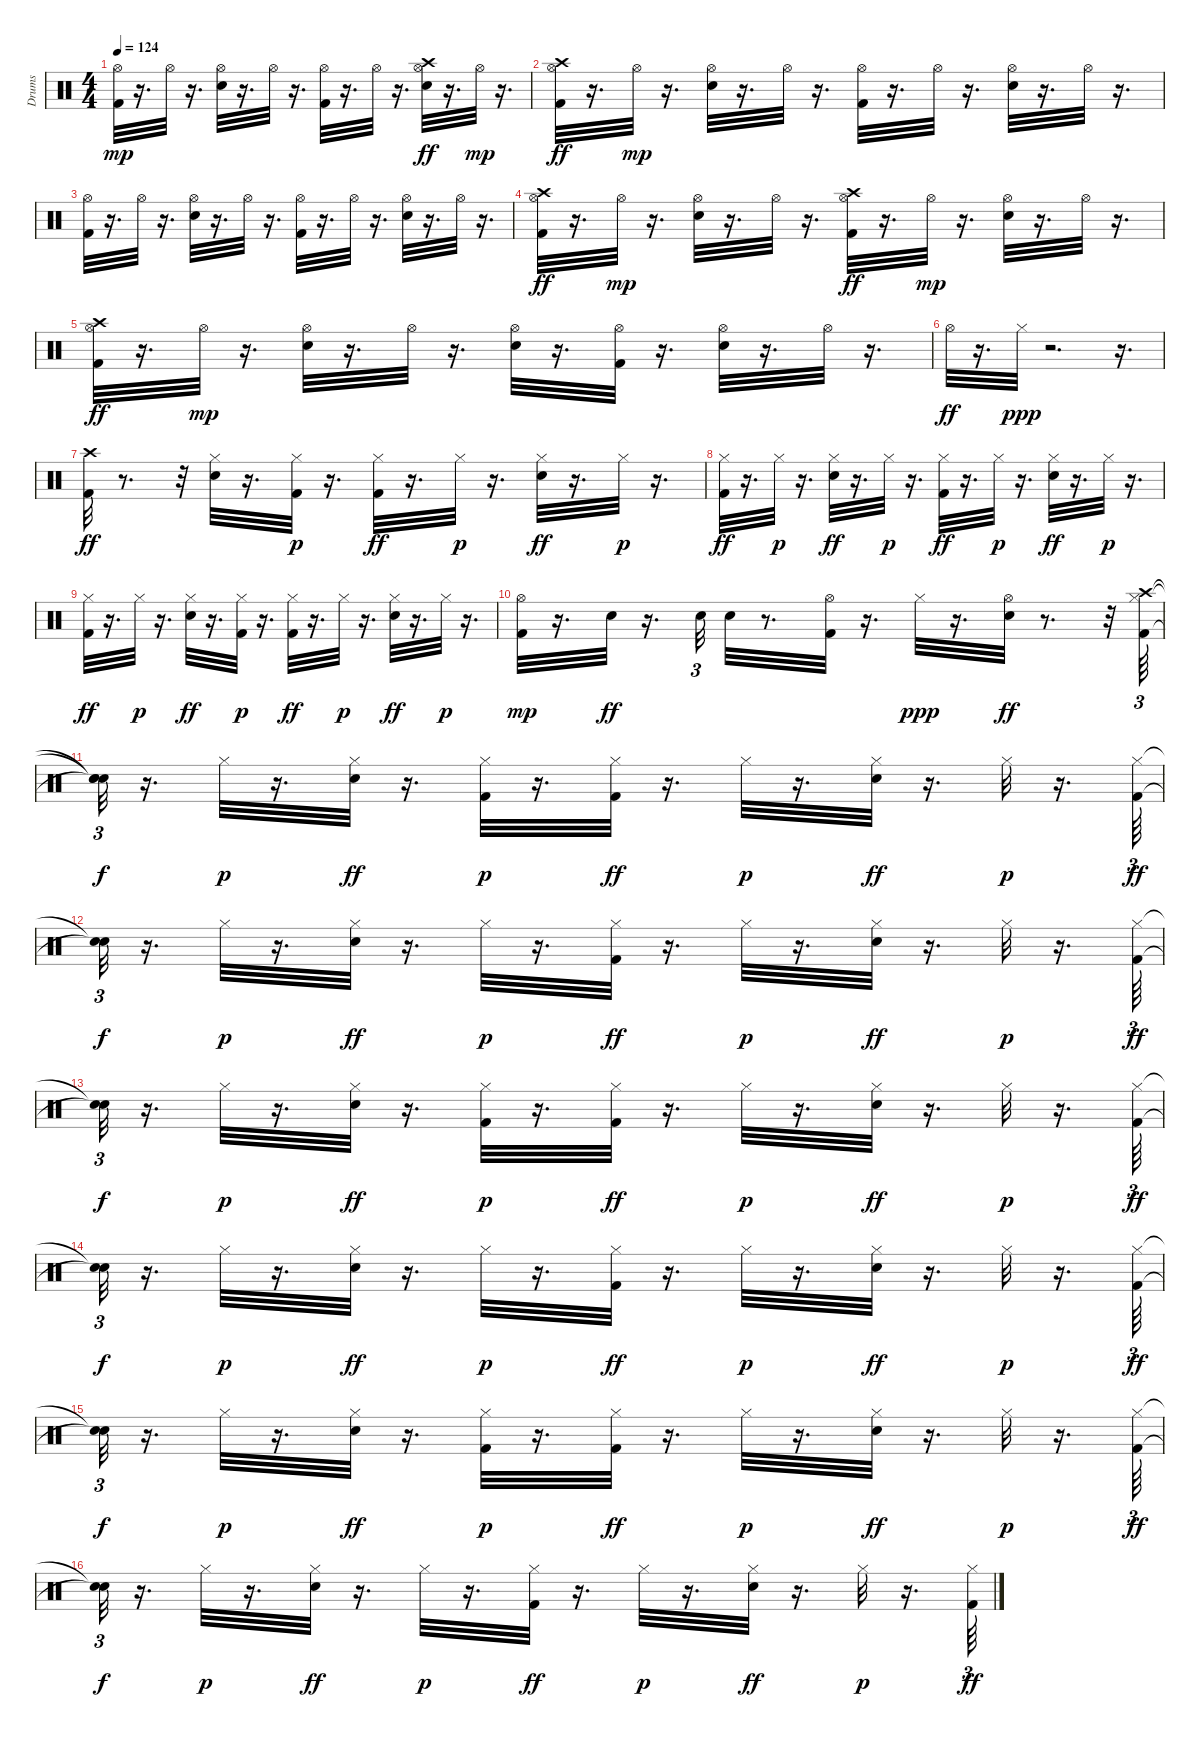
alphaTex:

\track ("Drums" "Drums") {instrument percussion}
\staff {score}
\articulation defaults
\ts (4 4)
\tempo 124
\clef neutral
\ks c
("Kick (hit) 2" "Hi-Hat (open)").32{dy mp} r.16{d} "Hi-Hat (open)".32 r.16{d} ("Snare (hit) 2" "Hi-Hat (open)").32 r.16{d} "Hi-Hat (open)".32 r.16{d} ("Kick (hit) 2" "Hi-Hat (open)").32 r.16{d} "Hi-Hat (open)".32 r.16{d} ("Snare (hit) 2" "Hi-Hat (open)" "Crash high (hit)").32{dy ff} r.16{d} "Hi-Hat (open)".32{dy mp} r.16{d} |
("Kick (hit) 2" "Hi-Hat (open)" "Crash high (hit)").32{dy ff} r.16{d} "Hi-Hat (open)".32{dy mp} r.16{d} ("Snare (hit) 2" "Hi-Hat (open)").32 r.16{d} "Hi-Hat (open)".32 r.16{d} ("Kick (hit) 2" "Hi-Hat (open)").32 r.16{d} "Hi-Hat (open)".32 r.16{d} ("Snare (hit) 2" "Hi-Hat (open)").32 r.16{d} "Hi-Hat (open)".32 r.16{d} |
("Kick (hit) 2" "Hi-Hat (open)").32 r.16{d} "Hi-Hat (open)".32 r.16{d} ("Snare (hit) 2" "Hi-Hat (open)").32 r.16{d} "Hi-Hat (open)".32 r.16{d} ("Kick (hit) 2" "Hi-Hat (open)").32 r.16{d} "Hi-Hat (open)".32 r.16{d} ("Snare (hit) 2" "Hi-Hat (open)").32 r.16{d} "Hi-Hat (open)".32 r.16{d} |
("Kick (hit) 2" "Hi-Hat (open)" "Crash high (hit)").32{dy ff} r.16{d} "Hi-Hat (open)".32{dy mp} r.16{d} ("Snare (hit) 2" "Hi-Hat (open)").32 r.16{d} "Hi-Hat (open)".32 r.16{d} ("Kick (hit) 2" "Hi-Hat (open)" "Crash high (hit)").32{dy ff} r.16{d} "Hi-Hat (open)".32{dy mp} r.16{d} ("Snare (hit) 2" "Hi-Hat (open)").32 r.16{d} "Hi-Hat (open)".32 r.16{d} |
("Kick (hit) 2" "Hi-Hat (open)" "Crash high (hit)").32{dy ff} r.16{d} "Hi-Hat (open)".32{dy mp} r.16{d} ("Snare (hit) 2" "Hi-Hat (open)").32 r.16{d} "Hi-Hat (open)".32 r.16{d} ("Snare (hit) 2" "Hi-Hat (open)").32 r.16{d} ("Kick (hit) 2" "Hi-Hat (open)").32 r.16{d} ("Snare (hit) 2" "Hi-Hat (open)").32 r.16{d} "Hi-Hat (open)".32 r.16{d} |
"Hi-Hat (open)".32{dy ff} r.16{d} "Hi-Hat (closed)".32{dy ppp} r.2{d} r.16{d} |
("Kick (hit) 2" "Crash high (hit)").32{dy ff} r.8{d} r.32 ("Snare (hit) 2" "Hi-Hat (closed)").32 r.16{d} ("Kick (hit) 2" "Hi-Hat (closed)").32{dy p} r.16{d} ("Kick (hit) 2" "Hi-Hat (closed)").32{dy ff} r.16{d} "Hi-Hat (closed)".32{dy p} r.16{d} ("Snare (hit) 2" "Hi-Hat (closed)").32{dy ff} r.16{d} "Hi-Hat (closed)".32{dy p} r.16{d} |
("Kick (hit) 2" "Hi-Hat (closed)").32{dy ff} r.16{d} "Hi-Hat (closed)".32{dy p} r.16{d} ("Snare (hit) 2" "Hi-Hat (closed)").32{dy ff} r.16{d} "Hi-Hat (closed)".32{dy p} r.16{d} ("Kick (hit) 2" "Hi-Hat (closed)").32{dy ff} r.16{d} "Hi-Hat (closed)".32{dy p} r.16{d} ("Snare (hit) 2" "Hi-Hat (closed)").32{dy ff} r.16{d} "Hi-Hat (closed)".32{dy p} r.16{d} |
("Kick (hit) 2" "Hi-Hat (closed)").32{dy ff} r.16{d} "Hi-Hat (closed)".32{dy p} r.16{d} ("Snare (hit) 2" "Hi-Hat (closed)").32{dy ff} r.16{d} ("Kick (hit) 2" "Hi-Hat (closed)").32{dy p} r.16{d} ("Kick (hit) 2" "Hi-Hat (closed)").32{dy ff} r.16{d} "Hi-Hat (closed)".32{dy p} r.16{d} ("Snare (hit) 2" "Hi-Hat (closed)").32{dy ff} r.16{d} "Hi-Hat (closed)".32{dy p} r.16{d} |
("Kick (hit) 2" "Hi-Hat (open)").32{dy mp} r.16{d} "Snare (hit) 2".32{dy ff} r.16{d} "Snare (hit) 2".32{tu (3 2)} "Snare (hit) 2".32 r.8{d} ("Kick (hit) 2" "Hi-Hat (open)").32 r.16{d} "Hi-Hat (closed)".32{dy ppp} r.16{d} ("Snare (hit) 2" "Hi-Hat (open)").32{dy ff} r.8{d} r.32 ("Kick (hit) 2" "Hi-Hat (closed)" "Crash high (hit)").64{tu (3 2)} |
("Snare (hit)"{t} "Snare (hit)"{t} "Snare (hit)"{t}).32{tu (3 2) dy f} r.16{d} "Hi-Hat (closed)".32{dy p} r.16{d} ("Snare (hit) 2" "Hi-Hat (closed)").32{dy ff} r.16{d} ("Kick (hit) 2" "Hi-Hat (closed)").32{dy p} r.16{d} ("Kick (hit) 2" "Hi-Hat (closed)").32{dy ff} r.16{d} "Hi-Hat (closed)".32{dy p} r.16{d} ("Snare (hit) 2" "Hi-Hat (closed)").32{dy ff} r.16{d} "Hi-Hat (closed)".32{dy p} r.16{d} ("Kick (hit) 2" "Hi-Hat (closed)").64{tu (3 2) dy ff} |
("Snare (hit)"{t} "Snare (hit)"{t}).32{tu (3 2) dy f} r.16{d} "Hi-Hat (closed)".32{dy p} r.16{d} ("Snare (hit) 2" "Hi-Hat (closed)").32{dy ff} r.16{d} "Hi-Hat (closed)".32{dy p} r.16{d} ("Kick (hit) 2" "Hi-Hat (closed)").32{dy ff} r.16{d} "Hi-Hat (closed)".32{dy p} r.16{d} ("Snare (hit) 2" "Hi-Hat (closed)").32{dy ff} r.16{d} "Hi-Hat (closed)".32{dy p} r.16{d} ("Kick (hit) 2" "Hi-Hat (closed)").64{tu (3 2) dy ff} |
("Snare (hit)"{t} "Snare (hit)"{t}).32{tu (3 2) dy f} r.16{d} "Hi-Hat (closed)".32{dy p} r.16{d} ("Snare (hit) 2" "Hi-Hat (closed)").32{dy ff} r.16{d} ("Kick (hit) 2" "Hi-Hat (closed)").32{dy p} r.16{d} ("Kick (hit) 2" "Hi-Hat (closed)").32{dy ff} r.16{d} "Hi-Hat (closed)".32{dy p} r.16{d} ("Snare (hit) 2" "Hi-Hat (closed)").32{dy ff} r.16{d} "Hi-Hat (closed)".32{dy p} r.16{d} ("Kick (hit) 2" "Hi-Hat (closed)").64{tu (3 2) dy ff} |
("Snare (hit)"{t} "Snare (hit)"{t}).32{tu (3 2) dy f} r.16{d} "Hi-Hat (closed)".32{dy p} r.16{d} ("Snare (hit) 2" "Hi-Hat (closed)").32{dy ff} r.16{d} "Hi-Hat (closed)".32{dy p} r.16{d} ("Kick (hit) 2" "Hi-Hat (closed)").32{dy ff} r.16{d} "Hi-Hat (closed)".32{dy p} r.16{d} ("Snare (hit) 2" "Hi-Hat (closed)").32{dy ff} r.16{d} "Hi-Hat (closed)".32{dy p} r.16{d} ("Kick (hit) 2" "Hi-Hat (closed)").64{tu (3 2) dy ff} |
("Snare (hit)"{t} "Snare (hit)"{t}).32{tu (3 2) dy f} r.16{d} "Hi-Hat (closed)".32{dy p} r.16{d} ("Snare (hit) 2" "Hi-Hat (closed)").32{dy ff} r.16{d} ("Kick (hit) 2" "Hi-Hat (closed)").32{dy p} r.16{d} ("Kick (hit) 2" "Hi-Hat (closed)").32{dy ff} r.16{d} "Hi-Hat (closed)".32{dy p} r.16{d} ("Snare (hit) 2" "Hi-Hat (closed)").32{dy ff} r.16{d} "Hi-Hat (closed)".32{dy p} r.16{d} ("Kick (hit) 2" "Hi-Hat (closed)").64{tu (3 2) dy ff} |
("Snare (hit)"{t} "Snare (hit)"{t}).32{tu (3 2) dy f} r.16{d} "Hi-Hat (closed)".32{dy p} r.16{d} ("Snare (hit) 2" "Hi-Hat (closed)").32{dy ff} r.16{d} "Hi-Hat (closed)".32{dy p} r.16{d} ("Kick (hit) 2" "Hi-Hat (closed)").32{dy ff} r.16{d} "Hi-Hat (closed)".32{dy p} r.16{d} ("Snare (hit) 2" "Hi-Hat (closed)").32{dy ff} r.16{d} "Hi-Hat (closed)".32{dy p} r.16{d} ("Kick (hit) 2" "Hi-Hat (closed)").64{tu (3 2) dy ff}
